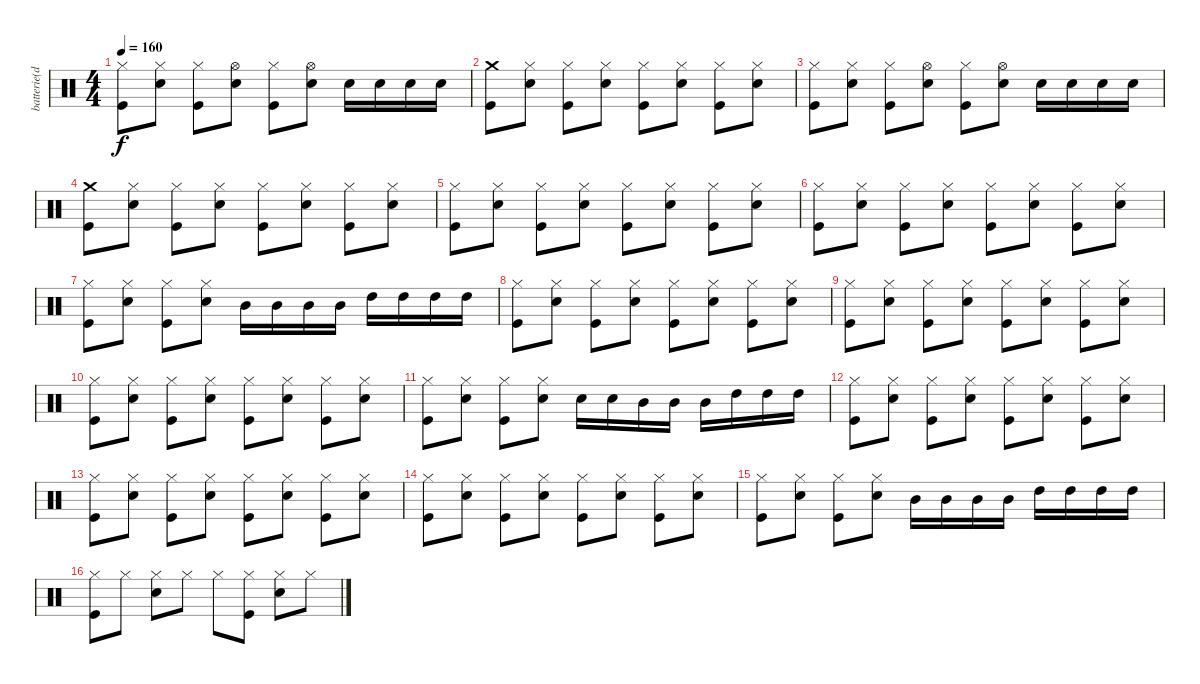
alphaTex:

\track ("batterie(dave)" "batterie(d") {instrument percussion}
\staff {score}
\articulation defaults
\ts (4 4)
\tempo 160
\clef neutral
\ks c
("Hi-Hat (closed)" "Kick (hit)").8{dy f} ("Hi-Hat (closed)" "Snare (hit) 2").8 ("Hi-Hat (closed)" "Kick (hit)").8 ("Hi-Hat (open)" "Snare (hit) 2").8 ("Hi-Hat (closed)" "Kick (hit)").8 ("Hi-Hat (open)" "Snare (hit) 2").8 "Snare (hit) 2".16 "Snare (hit) 2".16 "Snare (hit) 2".16 "Snare (hit) 2".16 |
("Crash medium (hit)" "Kick (hit)").8 ("Hi-Hat (closed)" "Snare (hit) 2").8 ("Hi-Hat (closed)" "Kick (hit)").8 ("Hi-Hat (closed)" "Snare (hit) 2").8 ("Hi-Hat (closed)" "Kick (hit)").8 ("Hi-Hat (closed)" "Snare (hit) 2").8 ("Hi-Hat (closed)" "Kick (hit)").8 ("Hi-Hat (closed)" "Snare (hit) 2").8 |
("Hi-Hat (closed)" "Kick (hit)").8 ("Hi-Hat (closed)" "Snare (hit) 2").8 ("Hi-Hat (closed)" "Kick (hit)").8 ("Hi-Hat (open)" "Snare (hit) 2").8 ("Hi-Hat (closed)" "Kick (hit)").8 ("Hi-Hat (open)" "Snare (hit) 2").8 "Snare (hit) 2".16 "Snare (hit) 2".16 "Snare (hit) 2".16 "Snare (hit) 2".16 |
("Crash medium (hit)" "Kick (hit)").8 ("Hi-Hat (closed)" "Snare (hit) 2").8 ("Hi-Hat (closed)" "Kick (hit)").8 ("Hi-Hat (closed)" "Snare (hit) 2").8 ("Hi-Hat (closed)" "Kick (hit)").8 ("Hi-Hat (closed)" "Snare (hit) 2").8 ("Hi-Hat (closed)" "Kick (hit)").8 ("Hi-Hat (closed)" "Snare (hit) 2").8 |
("Hi-Hat (closed)" "Kick (hit)").8 ("Hi-Hat (closed)" "Snare (hit) 2").8 ("Hi-Hat (closed)" "Kick (hit)").8 ("Hi-Hat (closed)" "Snare (hit) 2").8 ("Hi-Hat (closed)" "Kick (hit)").8 ("Hi-Hat (closed)" "Snare (hit) 2").8 ("Hi-Hat (closed)" "Kick (hit)").8 ("Hi-Hat (closed)" "Snare (hit) 2").8 |
("Hi-Hat (closed)" "Kick (hit)").8 ("Hi-Hat (closed)" "Snare (hit) 2").8 ("Hi-Hat (closed)" "Kick (hit)").8 ("Hi-Hat (closed)" "Snare (hit) 2").8 ("Hi-Hat (closed)" "Kick (hit)").8 ("Hi-Hat (closed)" "Snare (hit) 2").8 ("Hi-Hat (closed)" "Kick (hit)").8 ("Hi-Hat (closed)" "Snare (hit) 2").8 |
("Hi-Hat (closed)" "Kick (hit)").8 ("Hi-Hat (closed)" "Snare (hit) 2").8 ("Hi-Hat (closed)" "Kick (hit)").8 ("Hi-Hat (closed)" "Snare (hit) 2").8 "Mid Tom (hit)".16 "Mid Tom (hit)".16 "Mid Tom (hit)".16 "Mid Tom (hit)".16 "High Tom (hit)".16 "High Tom (hit)".16 "High Tom (hit)".16 "High Tom (hit)".16 |
("Hi-Hat (closed)" "Kick (hit)").8 ("Hi-Hat (closed)" "Snare (hit) 2").8 ("Hi-Hat (closed)" "Kick (hit)").8 ("Hi-Hat (closed)" "Snare (hit) 2").8 ("Hi-Hat (closed)" "Kick (hit)").8 ("Hi-Hat (closed)" "Snare (hit) 2").8 ("Hi-Hat (closed)" "Kick (hit)").8 ("Hi-Hat (closed)" "Snare (hit) 2").8 |
("Hi-Hat (closed)" "Kick (hit)").8 ("Hi-Hat (closed)" "Snare (hit) 2").8 ("Hi-Hat (closed)" "Kick (hit)").8 ("Hi-Hat (closed)" "Snare (hit) 2").8 ("Hi-Hat (closed)" "Kick (hit)").8 ("Hi-Hat (closed)" "Snare (hit) 2").8 ("Hi-Hat (closed)" "Kick (hit)").8 ("Hi-Hat (closed)" "Snare (hit) 2").8 |
("Hi-Hat (closed)" "Kick (hit)").8 ("Hi-Hat (closed)" "Snare (hit) 2").8 ("Hi-Hat (closed)" "Kick (hit)").8 ("Hi-Hat (closed)" "Snare (hit) 2").8 ("Hi-Hat (closed)" "Kick (hit)").8 ("Hi-Hat (closed)" "Snare (hit) 2").8 ("Hi-Hat (closed)" "Kick (hit)").8 ("Hi-Hat (closed)" "Snare (hit) 2").8 |
("Hi-Hat (closed)" "Kick (hit)").8 ("Hi-Hat (closed)" "Snare (hit) 2").8 ("Hi-Hat (closed)" "Kick (hit)").8 ("Hi-Hat (closed)" "Snare (hit) 2").8 "Snare (hit) 2".16 "Snare (hit) 2".16 "Mid Tom (hit)".16 "Mid Tom (hit)".16 "Mid Tom (hit)".16 "High Tom (hit)".16 "High Tom (hit)".16 "High Tom (hit)".16 |
("Hi-Hat (closed)" "Kick (hit)").8 ("Hi-Hat (closed)" "Snare (hit) 2").8 ("Hi-Hat (closed)" "Kick (hit)").8 ("Hi-Hat (closed)" "Snare (hit) 2").8 ("Hi-Hat (closed)" "Kick (hit)").8 ("Hi-Hat (closed)" "Snare (hit) 2").8 ("Hi-Hat (closed)" "Kick (hit)").8 ("Hi-Hat (closed)" "Snare (hit) 2").8 |
("Hi-Hat (closed)" "Kick (hit)").8 ("Hi-Hat (closed)" "Snare (hit) 2").8 ("Hi-Hat (closed)" "Kick (hit)").8 ("Hi-Hat (closed)" "Snare (hit) 2").8 ("Hi-Hat (closed)" "Kick (hit)").8 ("Hi-Hat (closed)" "Snare (hit) 2").8 ("Hi-Hat (closed)" "Kick (hit)").8 ("Hi-Hat (closed)" "Snare (hit) 2").8 |
("Hi-Hat (closed)" "Kick (hit)").8 ("Hi-Hat (closed)" "Snare (hit) 2").8 ("Hi-Hat (closed)" "Kick (hit)").8 ("Hi-Hat (closed)" "Snare (hit) 2").8 ("Hi-Hat (closed)" "Kick (hit)").8 ("Hi-Hat (closed)" "Snare (hit) 2").8 ("Hi-Hat (closed)" "Kick (hit)").8 ("Hi-Hat (closed)" "Snare (hit) 2").8 |
("Hi-Hat (closed)" "Kick (hit)").8 ("Hi-Hat (closed)" "Snare (hit) 2").8 ("Hi-Hat (closed)" "Kick (hit)").8 ("Hi-Hat (closed)" "Snare (hit) 2").8 "Mid Tom (hit)".16 "Mid Tom (hit)".16 "Mid Tom (hit)".16 "Mid Tom (hit)".16 "High Tom (hit)".16 "High Tom (hit)".16 "High Tom (hit)".16 "High Tom (hit)".16 |
("Hi-Hat (closed)" "Kick (hit)").8 "Hi-Hat (closed)".8 ("Hi-Hat (closed)" "Snare (hit) 2").8 "Hi-Hat (closed)".8 "Hi-Hat (closed)".8 ("Hi-Hat (closed)" "Kick (hit)").8 ("Hi-Hat (closed)" "Snare (hit) 2").8 "Hi-Hat (closed)".8
